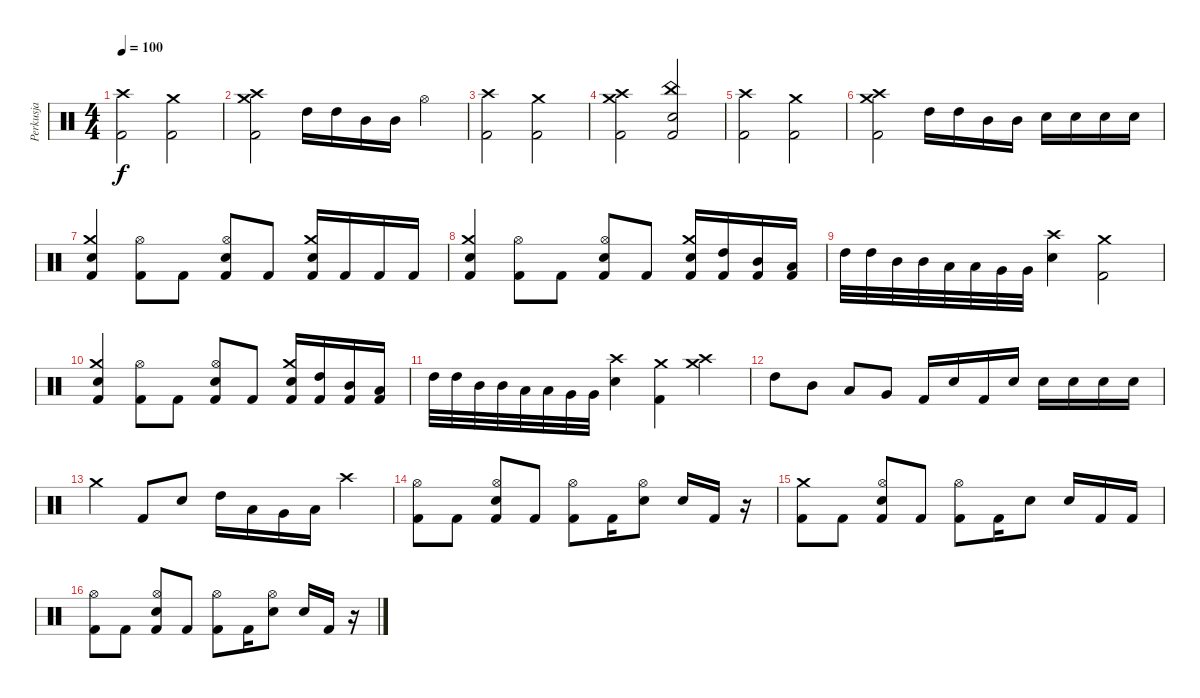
\track ("Perkusja" "Perkusja") {instrument percussion}
\staff {score}
\articulation defaults
\ts (4 4)
\tempo 100
\clef neutral
\ks c
("Crash high (hit)" "Kick (hit) 2").2{dy f} ("Crash medium (hit)" "Kick (hit) 2").2 |
("Crash medium (hit)" "Crash high (hit)" "Kick (hit) 2").2 "High Tom (hit)".16 "High Tom (hit)".16 "Mid Tom (hit)".16 "Mid Tom (hit)".16 "Hi-Hat (open)".4 |
("Crash high (hit)" "Kick (hit) 2").2 ("Crash medium (hit)" "Kick (hit) 2").2 |
("Crash medium (hit)" "Crash high (hit)" "Kick (hit) 2").2 ("China (hit)" "Kick (hit) 2" "Electric Snare (hit)").2 |
("Crash high (hit)" "Kick (hit) 2").2 ("Crash medium (hit)" "Kick (hit) 2").2 |
("Crash medium (hit)" "Crash high (hit)" "Kick (hit) 2").2 "High Tom (hit)".16 "High Tom (hit)".16 "Mid Tom (hit)".16 "Mid Tom (hit)".16 "Electric Snare (hit)".16 "Electric Snare (hit)".16 "Electric Snare (hit)".16 "Electric Snare (hit)".16 |
("Crash medium (hit)" "Kick (hit) 2" "Snare (hit) 2").4 ("Hi-Hat (open)" "Kick (hit) 2").8 "Kick (hit) 2".8 ("Hi-Hat (open)" "Electric Snare (hit)" "Kick (hit) 2").8 "Kick (hit) 2".8 ("Crash medium (hit)" "Electric Snare (hit)" "Kick (hit) 2").16 "Kick (hit) 2".16 "Kick (hit) 2".16 "Kick (hit) 2".16 |
("Crash medium (hit)" "Kick (hit) 2" "Snare (hit) 2").4 ("Hi-Hat (open)" "Kick (hit) 2").8 "Kick (hit) 2".8 ("Hi-Hat (open)" "Electric Snare (hit)" "Kick (hit) 2").8 "Kick (hit) 2".8 ("Crash medium (hit)" "Electric Snare (hit)" "Kick (hit) 2").16 ("High Tom (hit)" "Kick (hit) 2").16 ("Mid Tom (hit)" "Kick (hit) 2").16 ("Low Tom (hit)" "Kick (hit) 2").16 |
"High Tom (hit)".32 "High Tom (hit)".32 "Mid Tom (hit)".32 "Mid Tom (hit)".32 "Low Tom (hit)".32 "Low Tom (hit)".32 "Very Low Tom (hit)".32 "Very Low Tom (hit)".32 ("Crash high (hit)" "Snare (hit) 2").4 ("Crash medium (hit)" "Kick (hit) 2").2 |
("Crash medium (hit)" "Kick (hit) 2" "Snare (hit) 2").4 ("Hi-Hat (open)" "Kick (hit) 2").8 "Kick (hit) 2".8 ("Hi-Hat (open)" "Electric Snare (hit)" "Kick (hit) 2").8 "Kick (hit) 2".8 ("Crash medium (hit)" "Electric Snare (hit)" "Kick (hit) 2").16 ("High Tom (hit)" "Kick (hit) 2").16 ("Mid Tom (hit)" "Kick (hit) 2").16 ("Low Tom (hit)" "Kick (hit) 2").16 |
"High Tom (hit)".32 "High Tom (hit)".32 "Mid Tom (hit)".32 "Mid Tom (hit)".32 "Low Tom (hit)".32 "Low Tom (hit)".32 "Very Low Tom (hit)".32 "Very Low Tom (hit)".32 ("Crash high (hit)" "Snare (hit) 2").4 ("Crash medium (hit)" "Kick (hit) 2").4 ("Crash high (hit)" "Crash medium (hit)").4 |
"High Tom (hit)".8 "Mid Tom (hit)".8 "Low Tom (hit)".8 "Very Low Tom (hit)".8 "Kick (hit) 2".16 "Electric Snare (hit)".16 "Kick (hit) 2".16 "Electric Snare (hit)".16 "Electric Snare (hit)".16 "Electric Snare (hit)".16 "Electric Snare (hit)".16 "Electric Snare (hit)".16 |
"Crash medium (hit)".4 "Kick (hit) 2".8 "Electric Snare (hit)".8 "High Tom (hit)".16 "Low Tom (hit)".16 "Very Low Tom (hit)".16 "Low Floor Tom (hit)".16 "Crash high (hit)".4 |
("Hi-Hat (open)" "Kick (hit) 2").8 "Kick (hit) 2".8 ("Hi-Hat (open)" "Electric Snare (hit)" "Kick (hit) 2").8 "Kick (hit) 2".8 ("Hi-Hat (open)" "Kick (hit) 2").8 "Kick (hit) 2".16 ("Hi-Hat (open)" "Electric Snare (hit)").8 "Electric Snare (hit)".16 "Kick (hit) 2".16 r.16 |
("Crash medium (hit)" "Kick (hit) 2").8 "Kick (hit) 2".8 ("Hi-Hat (open)" "Electric Snare (hit)" "Kick (hit) 2").8 "Kick (hit) 2".8 ("Hi-Hat (open)" "Kick (hit) 2").8 "Kick (hit) 2".16 "Electric Snare (hit)".8 "Electric Snare (hit)".16 "Kick (hit) 2".16 "Kick (hit) 2".16 |
("Hi-Hat (open)" "Kick (hit) 2").8 "Kick (hit) 2".8 ("Hi-Hat (open)" "Electric Snare (hit)" "Kick (hit) 2").8 "Kick (hit) 2".8 ("Hi-Hat (open)" "Kick (hit) 2").8 "Kick (hit) 2".16 ("Hi-Hat (open)" "Electric Snare (hit)").8 "Electric Snare (hit)".16 "Kick (hit) 2".16 r.16
